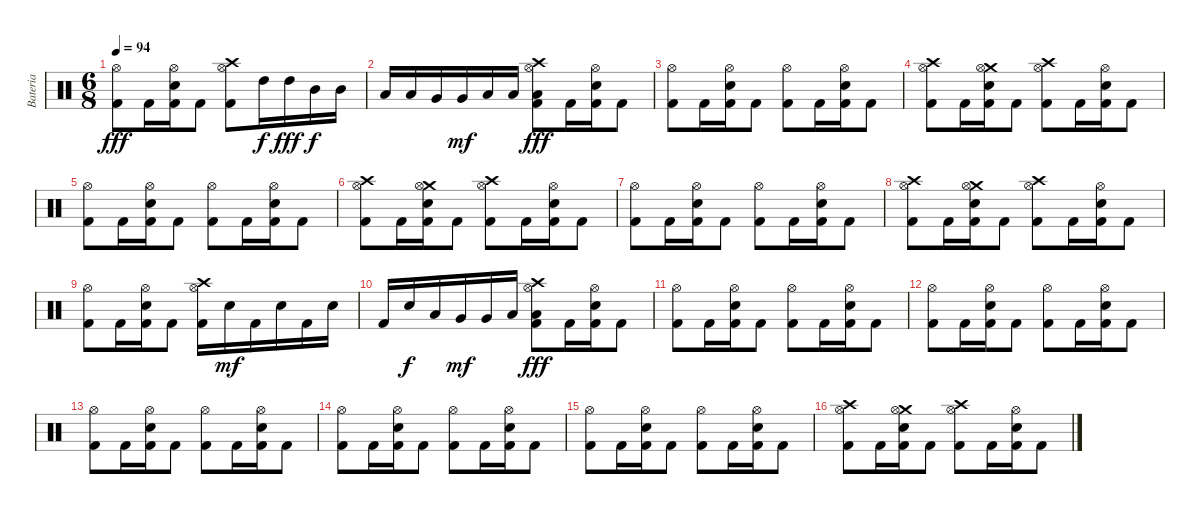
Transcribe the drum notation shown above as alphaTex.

\track ("Bateria" "Bateria") {instrument percussion}
\staff {score}
\articulation defaults
\ts (6 8)
\tempo 94
\clef neutral
\ks c
("Hi-Hat (open)" "Kick (hit) 2").8{dy fff} "Kick (hit) 2".16 ("Hi-Hat (open)" "Electric Snare (hit)" "Kick (hit) 2").16 "Kick (hit) 2".8 ("Crash high (hit)" "Hi-Hat (open)" "Kick (hit) 2").8 "High Tom (hit)".16{dy f} "High Tom (hit)".16{dy fff} "Mid Tom (hit)".16{dy f} "Mid Tom (hit)".16 |
"Low Tom (hit)".16 "Low Tom (hit)".16 "Very Low Tom (hit)".16 "Very Low Tom (hit)".16{dy mf} "Low Floor Tom (hit)".16 "Low Floor Tom (hit)".16 ("Crash high (hit)" "Hi-Hat (open)" "Low Floor Tom (hit)" "Kick (hit) 2").8{dy fff} "Kick (hit) 2".16 ("Hi-Hat (open)" "Electric Snare (hit)" "Kick (hit) 2").16 "Kick (hit) 2".8 |
("Hi-Hat (open)" "Kick (hit) 2").8 "Kick (hit) 2".16 ("Hi-Hat (open)" "Electric Snare (hit)" "Kick (hit) 2").16 "Kick (hit) 2".8 ("Hi-Hat (open)" "Kick (hit) 2").8 "Kick (hit) 2".16 ("Hi-Hat (open)" "Electric Snare (hit)" "Kick (hit) 2").16 "Kick (hit) 2".8 |
("Crash high (hit)" "Hi-Hat (open)" "Kick (hit) 2").8 "Kick (hit) 2".16 ("Crash medium (hit)" "Hi-Hat (open)" "Electric Snare (hit)" "Kick (hit) 2").16 "Kick (hit) 2".8 ("Crash high (hit)" "Hi-Hat (open)" "Kick (hit) 2").8 "Kick (hit) 2".16 ("Hi-Hat (open)" "Electric Snare (hit)" "Kick (hit) 2").16 "Kick (hit) 2".8 |
("Hi-Hat (open)" "Kick (hit) 2").8 "Kick (hit) 2".16 ("Hi-Hat (open)" "Electric Snare (hit)" "Kick (hit) 2").16 "Kick (hit) 2".8 ("Hi-Hat (open)" "Kick (hit) 2").8 "Kick (hit) 2".16 ("Hi-Hat (open)" "Electric Snare (hit)" "Kick (hit) 2").16 "Kick (hit) 2".8 |
("Crash high (hit)" "Hi-Hat (open)" "Kick (hit) 2").8 "Kick (hit) 2".16 ("Crash medium (hit)" "Hi-Hat (open)" "Electric Snare (hit)" "Kick (hit) 2").16 "Kick (hit) 2".8 ("Crash high (hit)" "Hi-Hat (open)" "Kick (hit) 2").8 "Kick (hit) 2".16 ("Hi-Hat (open)" "Electric Snare (hit)" "Kick (hit) 2").16 "Kick (hit) 2".8 |
("Hi-Hat (open)" "Kick (hit) 2").8 "Kick (hit) 2".16 ("Hi-Hat (open)" "Electric Snare (hit)" "Kick (hit) 2").16 "Kick (hit) 2".8 ("Hi-Hat (open)" "Kick (hit) 2").8 "Kick (hit) 2".16 ("Hi-Hat (open)" "Electric Snare (hit)" "Kick (hit) 2").16 "Kick (hit) 2".8 |
("Crash high (hit)" "Hi-Hat (open)" "Kick (hit) 2").8 "Kick (hit) 2".16 ("Crash medium (hit)" "Hi-Hat (open)" "Electric Snare (hit)" "Kick (hit) 2").16 "Kick (hit) 2".8 ("Crash high (hit)" "Hi-Hat (open)" "Kick (hit) 2").8 "Kick (hit) 2".16 ("Hi-Hat (open)" "Electric Snare (hit)" "Kick (hit) 2").16 "Kick (hit) 2".8 |
("Hi-Hat (open)" "Kick (hit) 2").8 "Kick (hit) 2".16 ("Hi-Hat (open)" "Electric Snare (hit)" "Kick (hit) 2").16 "Kick (hit) 2".8 ("Crash high (hit)" "Hi-Hat (open)" "Kick (hit) 2").16 "Electric Snare (hit)".16{dy mf} "Kick (hit) 2".16 "Electric Snare (hit)".16 "Kick (hit) 2".16 "Electric Snare (hit)".16 |
"Kick (hit) 2".16 "Electric Snare (hit)".16{dy f} "Low Tom (hit)".16 "Very Low Tom (hit)".16{dy mf} "Very Low Tom (hit)".16 "Low Floor Tom (hit)".16 ("Crash high (hit)" "Hi-Hat (open)" "Low Floor Tom (hit)" "Kick (hit) 2").8{dy fff} "Kick (hit) 2".16 ("Hi-Hat (open)" "Electric Snare (hit)" "Kick (hit) 2").16 "Kick (hit) 2".8 |
("Hi-Hat (open)" "Kick (hit) 2").8 "Kick (hit) 2".16 ("Hi-Hat (open)" "Electric Snare (hit)" "Kick (hit) 2").16 "Kick (hit) 2".8 ("Hi-Hat (open)" "Kick (hit) 2").8 "Kick (hit) 2".16 ("Hi-Hat (open)" "Electric Snare (hit)" "Kick (hit) 2").16 "Kick (hit) 2".8 |
("Hi-Hat (open)" "Kick (hit) 2").8 "Kick (hit) 2".16 ("Hi-Hat (open)" "Electric Snare (hit)" "Kick (hit) 2").16 "Kick (hit) 2".8 ("Hi-Hat (open)" "Kick (hit) 2").8 "Kick (hit) 2".16 ("Hi-Hat (open)" "Electric Snare (hit)" "Kick (hit) 2").16 "Kick (hit) 2".8 |
("Hi-Hat (open)" "Kick (hit) 2").8 "Kick (hit) 2".16 ("Hi-Hat (open)" "Electric Snare (hit)" "Kick (hit) 2").16 "Kick (hit) 2".8 ("Hi-Hat (open)" "Kick (hit) 2").8 "Kick (hit) 2".16 ("Hi-Hat (open)" "Electric Snare (hit)" "Kick (hit) 2").16 "Kick (hit) 2".8 |
("Hi-Hat (open)" "Kick (hit) 2").8 "Kick (hit) 2".16 ("Hi-Hat (open)" "Electric Snare (hit)" "Kick (hit) 2").16 "Kick (hit) 2".8 ("Hi-Hat (open)" "Kick (hit) 2").8 "Kick (hit) 2".16 ("Hi-Hat (open)" "Electric Snare (hit)" "Kick (hit) 2").16 "Kick (hit) 2".8 |
("Hi-Hat (open)" "Kick (hit) 2").8 "Kick (hit) 2".16 ("Hi-Hat (open)" "Electric Snare (hit)" "Kick (hit) 2").16 "Kick (hit) 2".8 ("Hi-Hat (open)" "Kick (hit) 2").8 "Kick (hit) 2".16 ("Hi-Hat (open)" "Electric Snare (hit)" "Kick (hit) 2").16 "Kick (hit) 2".8 |
("Crash high (hit)" "Hi-Hat (open)" "Kick (hit) 2").8 "Kick (hit) 2".16 ("Crash medium (hit)" "Hi-Hat (open)" "Electric Snare (hit)" "Kick (hit) 2").16 "Kick (hit) 2".8 ("Crash high (hit)" "Hi-Hat (open)" "Kick (hit) 2").8 "Kick (hit) 2".16 ("Hi-Hat (open)" "Electric Snare (hit)" "Kick (hit) 2").16 "Kick (hit) 2".8
